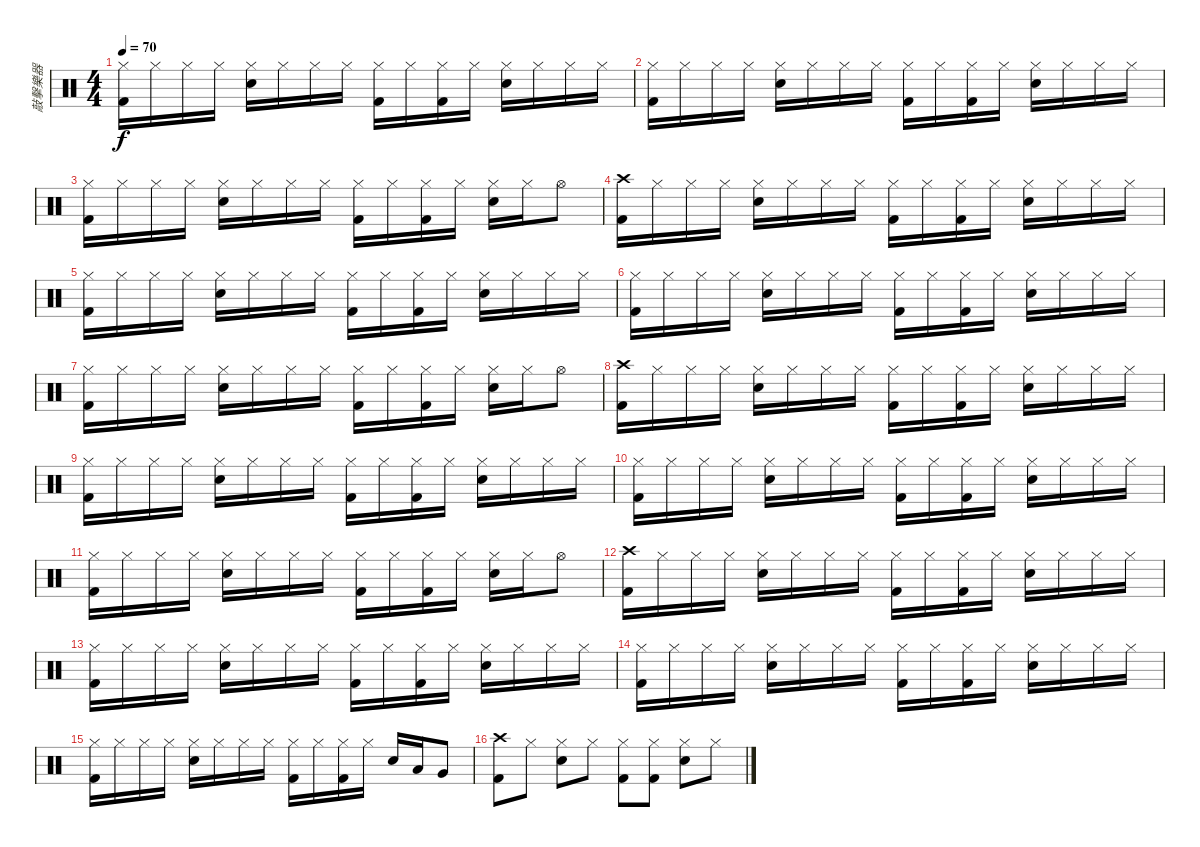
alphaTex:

\track ("敲擊樂器" "敲擊樂器") {instrument percussion}
\staff {score}
\articulation defaults
\ts (4 4)
\tempo 70
\clef neutral
\ks c
("Hi-Hat (closed)" "Kick (hit) 2").16{dy f} "Hi-Hat (closed)".16 "Hi-Hat (closed)".16 "Hi-Hat (closed)".16 ("Hi-Hat (closed)" "Snare (hit) 2").16 "Hi-Hat (closed)".16 "Hi-Hat (closed)".16 "Hi-Hat (closed)".16 ("Hi-Hat (closed)" "Kick (hit) 2").16 "Hi-Hat (closed)".16 ("Hi-Hat (closed)" "Kick (hit) 2").16 "Hi-Hat (closed)".16 ("Hi-Hat (closed)" "Snare (hit) 2").16 "Hi-Hat (closed)".16 "Hi-Hat (closed)".16 "Hi-Hat (closed)".16 |
("Hi-Hat (closed)" "Kick (hit) 2").16 "Hi-Hat (closed)".16 "Hi-Hat (closed)".16 "Hi-Hat (closed)".16 ("Hi-Hat (closed)" "Snare (hit) 2").16 "Hi-Hat (closed)".16 "Hi-Hat (closed)".16 "Hi-Hat (closed)".16 ("Hi-Hat (closed)" "Kick (hit) 2").16 "Hi-Hat (closed)".16 ("Hi-Hat (closed)" "Kick (hit) 2").16 "Hi-Hat (closed)".16 ("Hi-Hat (closed)" "Snare (hit) 2").16 "Hi-Hat (closed)".16 "Hi-Hat (closed)".16 "Hi-Hat (closed)".16 |
("Hi-Hat (closed)" "Kick (hit) 2").16 "Hi-Hat (closed)".16 "Hi-Hat (closed)".16 "Hi-Hat (closed)".16 ("Hi-Hat (closed)" "Snare (hit) 2").16 "Hi-Hat (closed)".16 "Hi-Hat (closed)".16 "Hi-Hat (closed)".16 ("Hi-Hat (closed)" "Kick (hit) 2").16 "Hi-Hat (closed)".16 ("Hi-Hat (closed)" "Kick (hit) 2").16 "Hi-Hat (closed)".16 ("Hi-Hat (closed)" "Snare (hit) 2").16 "Hi-Hat (closed)".16 "Hi-Hat (open)".8 |
("Crash high (hit)" "Kick (hit) 2").16 "Hi-Hat (closed)".16 "Hi-Hat (closed)".16 "Hi-Hat (closed)".16 ("Hi-Hat (closed)" "Snare (hit) 2").16 "Hi-Hat (closed)".16 "Hi-Hat (closed)".16 "Hi-Hat (closed)".16 ("Hi-Hat (closed)" "Kick (hit) 2").16 "Hi-Hat (closed)".16 ("Hi-Hat (closed)" "Kick (hit) 2").16 "Hi-Hat (closed)".16 ("Hi-Hat (closed)" "Snare (hit) 2").16 "Hi-Hat (closed)".16 "Hi-Hat (closed)".16 "Hi-Hat (closed)".16 |
("Hi-Hat (closed)" "Kick (hit) 2").16 "Hi-Hat (closed)".16 "Hi-Hat (closed)".16 "Hi-Hat (closed)".16 ("Hi-Hat (closed)" "Snare (hit) 2").16 "Hi-Hat (closed)".16 "Hi-Hat (closed)".16 "Hi-Hat (closed)".16 ("Hi-Hat (closed)" "Kick (hit) 2").16 "Hi-Hat (closed)".16 ("Hi-Hat (closed)" "Kick (hit) 2").16 "Hi-Hat (closed)".16 ("Hi-Hat (closed)" "Snare (hit) 2").16 "Hi-Hat (closed)".16 "Hi-Hat (closed)".16 "Hi-Hat (closed)".16 |
("Hi-Hat (closed)" "Kick (hit) 2").16 "Hi-Hat (closed)".16 "Hi-Hat (closed)".16 "Hi-Hat (closed)".16 ("Hi-Hat (closed)" "Snare (hit) 2").16 "Hi-Hat (closed)".16 "Hi-Hat (closed)".16 "Hi-Hat (closed)".16 ("Hi-Hat (closed)" "Kick (hit) 2").16 "Hi-Hat (closed)".16 ("Hi-Hat (closed)" "Kick (hit) 2").16 "Hi-Hat (closed)".16 ("Hi-Hat (closed)" "Snare (hit) 2").16 "Hi-Hat (closed)".16 "Hi-Hat (closed)".16 "Hi-Hat (closed)".16 |
("Hi-Hat (closed)" "Kick (hit) 2").16 "Hi-Hat (closed)".16 "Hi-Hat (closed)".16 "Hi-Hat (closed)".16 ("Hi-Hat (closed)" "Snare (hit) 2").16 "Hi-Hat (closed)".16 "Hi-Hat (closed)".16 "Hi-Hat (closed)".16 ("Hi-Hat (closed)" "Kick (hit) 2").16 "Hi-Hat (closed)".16 ("Hi-Hat (closed)" "Kick (hit) 2").16 "Hi-Hat (closed)".16 ("Hi-Hat (closed)" "Snare (hit) 2").16 "Hi-Hat (closed)".16 "Hi-Hat (open)".8 |
("Crash high (hit)" "Kick (hit) 2").16 "Hi-Hat (closed)".16 "Hi-Hat (closed)".16 "Hi-Hat (closed)".16 ("Hi-Hat (closed)" "Snare (hit) 2").16 "Hi-Hat (closed)".16 "Hi-Hat (closed)".16 "Hi-Hat (closed)".16 ("Hi-Hat (closed)" "Kick (hit) 2").16 "Hi-Hat (closed)".16 ("Hi-Hat (closed)" "Kick (hit) 2").16 "Hi-Hat (closed)".16 ("Hi-Hat (closed)" "Snare (hit) 2").16 "Hi-Hat (closed)".16 "Hi-Hat (closed)".16 "Hi-Hat (closed)".16 |
("Hi-Hat (closed)" "Kick (hit) 2").16 "Hi-Hat (closed)".16 "Hi-Hat (closed)".16 "Hi-Hat (closed)".16 ("Hi-Hat (closed)" "Snare (hit) 2").16 "Hi-Hat (closed)".16 "Hi-Hat (closed)".16 "Hi-Hat (closed)".16 ("Hi-Hat (closed)" "Kick (hit) 2").16 "Hi-Hat (closed)".16 ("Hi-Hat (closed)" "Kick (hit) 2").16 "Hi-Hat (closed)".16 ("Hi-Hat (closed)" "Snare (hit) 2").16 "Hi-Hat (closed)".16 "Hi-Hat (closed)".16 "Hi-Hat (closed)".16 |
("Hi-Hat (closed)" "Kick (hit) 2").16 "Hi-Hat (closed)".16 "Hi-Hat (closed)".16 "Hi-Hat (closed)".16 ("Hi-Hat (closed)" "Snare (hit) 2").16 "Hi-Hat (closed)".16 "Hi-Hat (closed)".16 "Hi-Hat (closed)".16 ("Hi-Hat (closed)" "Kick (hit) 2").16 "Hi-Hat (closed)".16 ("Hi-Hat (closed)" "Kick (hit) 2").16 "Hi-Hat (closed)".16 ("Hi-Hat (closed)" "Snare (hit) 2").16 "Hi-Hat (closed)".16 "Hi-Hat (closed)".16 "Hi-Hat (closed)".16 |
("Hi-Hat (closed)" "Kick (hit) 2").16 "Hi-Hat (closed)".16 "Hi-Hat (closed)".16 "Hi-Hat (closed)".16 ("Hi-Hat (closed)" "Snare (hit) 2").16 "Hi-Hat (closed)".16 "Hi-Hat (closed)".16 "Hi-Hat (closed)".16 ("Hi-Hat (closed)" "Kick (hit) 2").16 "Hi-Hat (closed)".16 ("Hi-Hat (closed)" "Kick (hit) 2").16 "Hi-Hat (closed)".16 ("Hi-Hat (closed)" "Snare (hit) 2").16 "Hi-Hat (closed)".16 "Hi-Hat (open)".8 |
("Crash high (hit)" "Kick (hit) 2").16 "Hi-Hat (closed)".16 "Hi-Hat (closed)".16 "Hi-Hat (closed)".16 ("Hi-Hat (closed)" "Snare (hit) 2").16 "Hi-Hat (closed)".16 "Hi-Hat (closed)".16 "Hi-Hat (closed)".16 ("Hi-Hat (closed)" "Kick (hit) 2").16 "Hi-Hat (closed)".16 ("Hi-Hat (closed)" "Kick (hit) 2").16 "Hi-Hat (closed)".16 ("Hi-Hat (closed)" "Snare (hit) 2").16 "Hi-Hat (closed)".16 "Hi-Hat (closed)".16 "Hi-Hat (closed)".16 |
("Hi-Hat (closed)" "Kick (hit) 2").16 "Hi-Hat (closed)".16 "Hi-Hat (closed)".16 "Hi-Hat (closed)".16 ("Hi-Hat (closed)" "Snare (hit) 2").16 "Hi-Hat (closed)".16 "Hi-Hat (closed)".16 "Hi-Hat (closed)".16 ("Hi-Hat (closed)" "Kick (hit) 2").16 "Hi-Hat (closed)".16 ("Hi-Hat (closed)" "Kick (hit) 2").16 "Hi-Hat (closed)".16 ("Hi-Hat (closed)" "Snare (hit) 2").16 "Hi-Hat (closed)".16 "Hi-Hat (closed)".16 "Hi-Hat (closed)".16 |
("Hi-Hat (closed)" "Kick (hit) 2").16 "Hi-Hat (closed)".16 "Hi-Hat (closed)".16 "Hi-Hat (closed)".16 ("Hi-Hat (closed)" "Snare (hit) 2").16 "Hi-Hat (closed)".16 "Hi-Hat (closed)".16 "Hi-Hat (closed)".16 ("Hi-Hat (closed)" "Kick (hit) 2").16 "Hi-Hat (closed)".16 ("Hi-Hat (closed)" "Kick (hit) 2").16 "Hi-Hat (closed)".16 ("Hi-Hat (closed)" "Snare (hit) 2").16 "Hi-Hat (closed)".16 "Hi-Hat (closed)".16 "Hi-Hat (closed)".16 |
("Hi-Hat (closed)" "Kick (hit) 2").16 "Hi-Hat (closed)".16 "Hi-Hat (closed)".16 "Hi-Hat (closed)".16 ("Hi-Hat (closed)" "Snare (hit) 2").16 "Hi-Hat (closed)".16 "Hi-Hat (closed)".16 "Hi-Hat (closed)".16 ("Hi-Hat (closed)" "Kick (hit) 2").16 "Hi-Hat (closed)".16 ("Hi-Hat (closed)" "Kick (hit) 2").16 "Hi-Hat (closed)".16 "Snare (hit) 2".16 "Low Tom (hit)".16 "Very Low Tom (hit)".8 |
("Crash high (hit)" "Kick (hit) 2").8 "Hi-Hat (closed)".8 ("Hi-Hat (closed)" "Snare (hit) 2").8 "Hi-Hat (closed)".8 ("Hi-Hat (closed)" "Kick (hit) 2").8 ("Hi-Hat (closed)" "Kick (hit) 2").8 ("Hi-Hat (closed)" "Snare (hit) 2").8 "Hi-Hat (closed)".8
